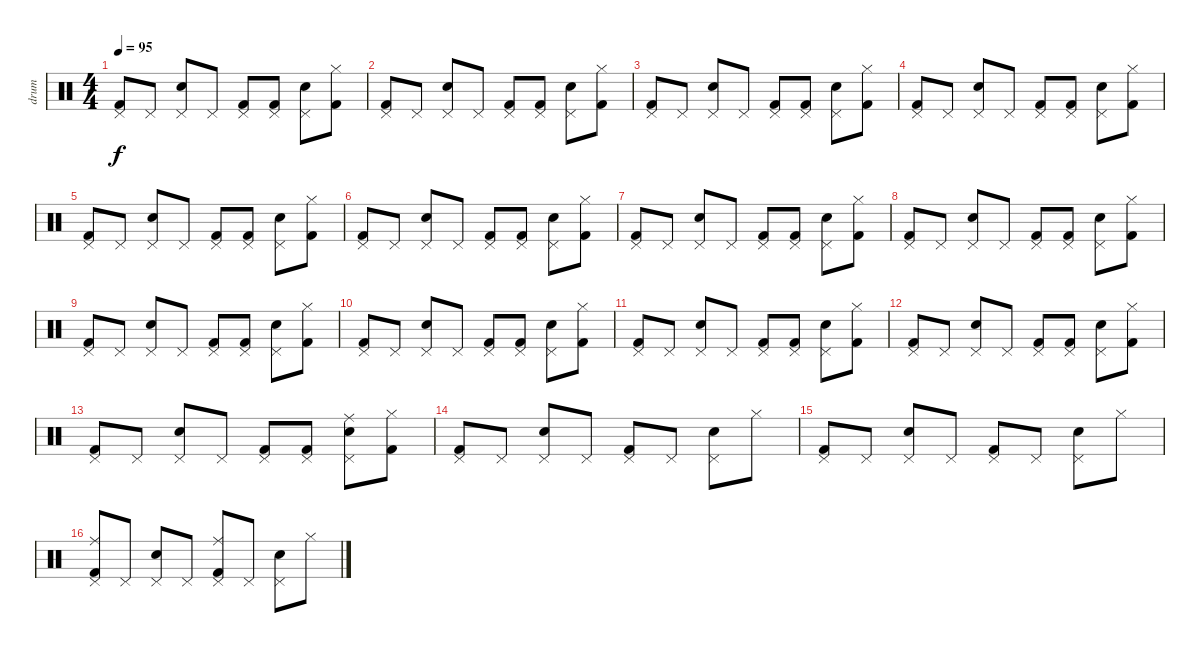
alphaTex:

\track ("drum" "drum") {instrument percussion}
\staff {score}
\articulation defaults
\ts (4 4)
\tempo 95
\clef neutral
\ks c
("Pedal Hi-Hat (hit)" "Kick (hit) 2").8{dy f} "Pedal Hi-Hat (hit)".8 ("Pedal Hi-Hat (hit)" "Hand Clap (hit)").8 "Pedal Hi-Hat (hit)".8 ("Pedal Hi-Hat (hit)" "Kick (hit) 2").8 ("Pedal Hi-Hat (hit)" "Kick (hit) 2").8 ("Pedal Hi-Hat (hit)" "Hand Clap (hit)").8 ("Hi-Hat (closed)" "Kick (hit) 2").8 |
("Pedal Hi-Hat (hit)" "Kick (hit) 2").8 "Pedal Hi-Hat (hit)".8 ("Pedal Hi-Hat (hit)" "Hand Clap (hit)").8 "Pedal Hi-Hat (hit)".8 ("Pedal Hi-Hat (hit)" "Kick (hit) 2").8 ("Pedal Hi-Hat (hit)" "Kick (hit) 2").8 ("Pedal Hi-Hat (hit)" "Hand Clap (hit)").8 ("Hi-Hat (closed)" "Kick (hit) 2").8 |
("Pedal Hi-Hat (hit)" "Kick (hit) 2").8 "Pedal Hi-Hat (hit)".8 ("Pedal Hi-Hat (hit)" "Hand Clap (hit)").8 "Pedal Hi-Hat (hit)".8 ("Pedal Hi-Hat (hit)" "Kick (hit) 2").8 ("Pedal Hi-Hat (hit)" "Kick (hit) 2").8 ("Pedal Hi-Hat (hit)" "Hand Clap (hit)").8 ("Hi-Hat (closed)" "Kick (hit) 2").8 |
("Pedal Hi-Hat (hit)" "Kick (hit) 2").8 "Pedal Hi-Hat (hit)".8 ("Pedal Hi-Hat (hit)" "Hand Clap (hit)").8 "Pedal Hi-Hat (hit)".8 ("Pedal Hi-Hat (hit)" "Kick (hit) 2").8 ("Pedal Hi-Hat (hit)" "Kick (hit) 2").8 ("Pedal Hi-Hat (hit)" "Hand Clap (hit)").8 ("Hi-Hat (closed)" "Kick (hit) 2").8 |
("Pedal Hi-Hat (hit)" "Kick (hit) 2").8 "Pedal Hi-Hat (hit)".8 ("Pedal Hi-Hat (hit)" "Hand Clap (hit)").8 "Pedal Hi-Hat (hit)".8 ("Pedal Hi-Hat (hit)" "Kick (hit) 2").8 ("Pedal Hi-Hat (hit)" "Kick (hit) 2").8 ("Pedal Hi-Hat (hit)" "Hand Clap (hit)").8 ("Hi-Hat (closed)" "Kick (hit) 2").8 |
("Pedal Hi-Hat (hit)" "Kick (hit) 2").8 "Pedal Hi-Hat (hit)".8 ("Pedal Hi-Hat (hit)" "Hand Clap (hit)").8 "Pedal Hi-Hat (hit)".8 ("Pedal Hi-Hat (hit)" "Kick (hit) 2").8 ("Pedal Hi-Hat (hit)" "Kick (hit) 2").8 ("Pedal Hi-Hat (hit)" "Hand Clap (hit)").8 ("Hi-Hat (closed)" "Kick (hit) 2").8 |
("Pedal Hi-Hat (hit)" "Kick (hit) 2").8 "Pedal Hi-Hat (hit)".8 ("Pedal Hi-Hat (hit)" "Hand Clap (hit)").8 "Pedal Hi-Hat (hit)".8 ("Pedal Hi-Hat (hit)" "Kick (hit) 2").8 ("Pedal Hi-Hat (hit)" "Kick (hit) 2").8 ("Pedal Hi-Hat (hit)" "Hand Clap (hit)").8 ("Hi-Hat (closed)" "Kick (hit) 2").8 |
("Pedal Hi-Hat (hit)" "Kick (hit) 2").8 "Pedal Hi-Hat (hit)".8 ("Pedal Hi-Hat (hit)" "Hand Clap (hit)").8 "Pedal Hi-Hat (hit)".8 ("Pedal Hi-Hat (hit)" "Kick (hit) 2").8 ("Pedal Hi-Hat (hit)" "Kick (hit) 2").8 ("Pedal Hi-Hat (hit)" "Hand Clap (hit)").8 ("Hi-Hat (closed)" "Kick (hit) 2").8 |
("Pedal Hi-Hat (hit)" "Kick (hit) 2").8 "Pedal Hi-Hat (hit)".8 ("Pedal Hi-Hat (hit)" "Hand Clap (hit)").8 "Pedal Hi-Hat (hit)".8 ("Pedal Hi-Hat (hit)" "Kick (hit) 2").8 ("Pedal Hi-Hat (hit)" "Kick (hit) 2").8 ("Pedal Hi-Hat (hit)" "Hand Clap (hit)").8 ("Hi-Hat (closed)" "Kick (hit) 2").8 |
("Pedal Hi-Hat (hit)" "Kick (hit) 2").8 "Pedal Hi-Hat (hit)".8 ("Pedal Hi-Hat (hit)" "Hand Clap (hit)").8 "Pedal Hi-Hat (hit)".8 ("Pedal Hi-Hat (hit)" "Kick (hit) 2").8 ("Pedal Hi-Hat (hit)" "Kick (hit) 2").8 ("Pedal Hi-Hat (hit)" "Hand Clap (hit)").8 ("Hi-Hat (closed)" "Kick (hit) 2").8 |
("Pedal Hi-Hat (hit)" "Kick (hit) 2").8 "Pedal Hi-Hat (hit)".8 ("Pedal Hi-Hat (hit)" "Hand Clap (hit)").8 "Pedal Hi-Hat (hit)".8 ("Pedal Hi-Hat (hit)" "Kick (hit) 2").8 ("Pedal Hi-Hat (hit)" "Kick (hit) 2").8 ("Pedal Hi-Hat (hit)" "Hand Clap (hit)").8 ("Hi-Hat (closed)" "Kick (hit) 2").8 |
("Pedal Hi-Hat (hit)" "Kick (hit) 2").8 "Pedal Hi-Hat (hit)".8 ("Pedal Hi-Hat (hit)" "Hand Clap (hit)").8 "Pedal Hi-Hat (hit)".8 ("Pedal Hi-Hat (hit)" "Kick (hit) 2").8 ("Pedal Hi-Hat (hit)" "Kick (hit) 2").8 ("Pedal Hi-Hat (hit)" "Hand Clap (hit)").8 ("Hi-Hat (closed)" "Kick (hit) 2").8 |
("Pedal Hi-Hat (hit)" "Kick (hit) 2").8 "Pedal Hi-Hat (hit)".8 ("Pedal Hi-Hat (hit)" "Hand Clap (hit)").8 "Pedal Hi-Hat (hit)".8 ("Pedal Hi-Hat (hit)" "Kick (hit) 2").8 ("Pedal Hi-Hat (hit)" "Kick (hit) 2").8 ("Pedal Hi-Hat (hit)" "Hand Clap (hit)" "Ride (middle)").8 ("Hi-Hat (closed)" "Kick (hit) 2").8 |
("Pedal Hi-Hat (hit)" "Kick (hit) 2").8 "Pedal Hi-Hat (hit)".8 ("Pedal Hi-Hat (hit)" "Hand Clap (hit)").8 "Pedal Hi-Hat (hit)".8 ("Pedal Hi-Hat (hit)" "Kick (hit) 2").8 "Pedal Hi-Hat (hit)".8 ("Pedal Hi-Hat (hit)" "Hand Clap (hit)").8 "Hi-Hat (closed)".8 |
("Pedal Hi-Hat (hit)" "Kick (hit) 2").8 "Pedal Hi-Hat (hit)".8 ("Pedal Hi-Hat (hit)" "Hand Clap (hit)").8 "Pedal Hi-Hat (hit)".8 ("Pedal Hi-Hat (hit)" "Kick (hit) 2").8 "Pedal Hi-Hat (hit)".8 ("Pedal Hi-Hat (hit)" "Hand Clap (hit)").8 "Hi-Hat (closed)".8 |
("Pedal Hi-Hat (hit)" "Kick (hit) 2" "Ride (middle)").8 "Pedal Hi-Hat (hit)".8 ("Pedal Hi-Hat (hit)" "Hand Clap (hit)").8 "Pedal Hi-Hat (hit)".8 ("Pedal Hi-Hat (hit)" "Kick (hit) 2" "Ride (middle)").8 "Pedal Hi-Hat (hit)".8 ("Pedal Hi-Hat (hit)" "Hand Clap (hit)").8 "Hi-Hat (closed)".8
